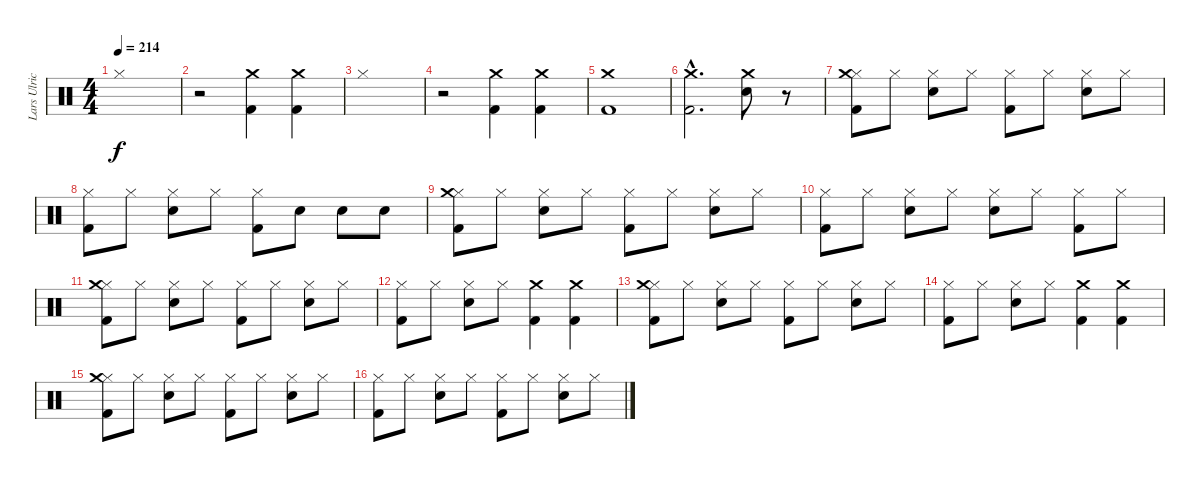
\track ("Lars Ulrich" "Lars Ulric") {instrument percussion}
\staff {score}
\articulation defaults
\ts (4 4)
\tempo 214
\clef neutral
\ks c "Hi-Hat (closed)".1{dy f}
|
r.2 ("Kick (hit) 2" "Crash medium (hit)").4 ("Kick (hit) 2" "Crash medium (hit)").4 |
"Hi-Hat (closed)".1 |
r.2 ("Kick (hit) 2" "Crash medium (hit)").4 ("Kick (hit) 2" "Crash medium (hit)").4 |
("Kick (hit) 2" "Crash medium (hit)").1 |
("Kick (hit) 2"{hac} "Crash medium (hit)"{hac}).2{d} ("Snare (hit) 2" "Crash medium (hit)").8 r.8 |
("Hi-Hat (closed)" "Kick (hit) 2" "Crash medium (hit)").8 "Hi-Hat (closed)".8 ("Hi-Hat (closed)" "Snare (hit) 2").8 "Hi-Hat (closed)".8 ("Hi-Hat (closed)" "Kick (hit) 2").8 "Hi-Hat (closed)".8 ("Hi-Hat (closed)" "Snare (hit) 2").8 "Hi-Hat (closed)".8 |
("Hi-Hat (closed)" "Kick (hit) 2").8 "Hi-Hat (closed)".8 ("Hi-Hat (closed)" "Snare (hit) 2").8 "Hi-Hat (closed)".8 ("Hi-Hat (closed)" "Kick (hit) 2").8 "Snare (hit) 2".8 "Snare (hit) 2".8 "Snare (hit) 2".8 |
("Hi-Hat (closed)" "Kick (hit) 2" "Crash medium (hit)").8 "Hi-Hat (closed)".8 ("Hi-Hat (closed)" "Snare (hit) 2").8 "Hi-Hat (closed)".8 ("Hi-Hat (closed)" "Kick (hit) 2").8 "Hi-Hat (closed)".8 ("Hi-Hat (closed)" "Snare (hit) 2").8 "Hi-Hat (closed)".8 |
("Hi-Hat (closed)" "Kick (hit) 2").8 "Hi-Hat (closed)".8 ("Hi-Hat (closed)" "Snare (hit) 2").8 "Hi-Hat (closed)".8 ("Hi-Hat (closed)" "Snare (hit) 2").8 "Hi-Hat (closed)".8 ("Hi-Hat (closed)" "Kick (hit) 2").8 "Hi-Hat (closed)".8 |
("Hi-Hat (closed)" "Kick (hit) 2" "Crash medium (hit)").8 "Hi-Hat (closed)".8 ("Hi-Hat (closed)" "Snare (hit) 2").8 "Hi-Hat (closed)".8 ("Hi-Hat (closed)" "Kick (hit) 2").8 "Hi-Hat (closed)".8 ("Hi-Hat (closed)" "Snare (hit) 2").8 "Hi-Hat (closed)".8 |
("Hi-Hat (closed)" "Kick (hit) 2").8 "Hi-Hat (closed)".8 ("Hi-Hat (closed)" "Snare (hit) 2").8 "Hi-Hat (closed)".8 ("Kick (hit) 2" "Crash medium (hit)").4 ("Kick (hit) 2" "Crash medium (hit)").4 |
("Hi-Hat (closed)" "Kick (hit) 2" "Crash medium (hit)").8 "Hi-Hat (closed)".8 ("Hi-Hat (closed)" "Snare (hit) 2").8 "Hi-Hat (closed)".8 ("Hi-Hat (closed)" "Kick (hit) 2").8 "Hi-Hat (closed)".8 ("Hi-Hat (closed)" "Snare (hit) 2").8 "Hi-Hat (closed)".8 |
("Hi-Hat (closed)" "Kick (hit) 2").8 "Hi-Hat (closed)".8 ("Hi-Hat (closed)" "Snare (hit) 2").8 "Hi-Hat (closed)".8 ("Kick (hit) 2" "Crash medium (hit)").4 ("Kick (hit) 2" "Crash medium (hit)").4 |
("Hi-Hat (closed)" "Kick (hit) 2" "Crash medium (hit)").8 "Hi-Hat (closed)".8 ("Hi-Hat (closed)" "Snare (hit) 2").8 "Hi-Hat (closed)".8 ("Hi-Hat (closed)" "Kick (hit) 2").8 "Hi-Hat (closed)".8 ("Hi-Hat (closed)" "Snare (hit) 2").8 "Hi-Hat (closed)".8 |
("Hi-Hat (closed)" "Kick (hit) 2").8 "Hi-Hat (closed)".8 ("Hi-Hat (closed)" "Snare (hit) 2").8 "Hi-Hat (closed)".8 ("Hi-Hat (closed)" "Kick (hit) 2").8 "Hi-Hat (closed)".8 ("Hi-Hat (closed)" "Snare (hit) 2").8 "Hi-Hat (closed)".8
